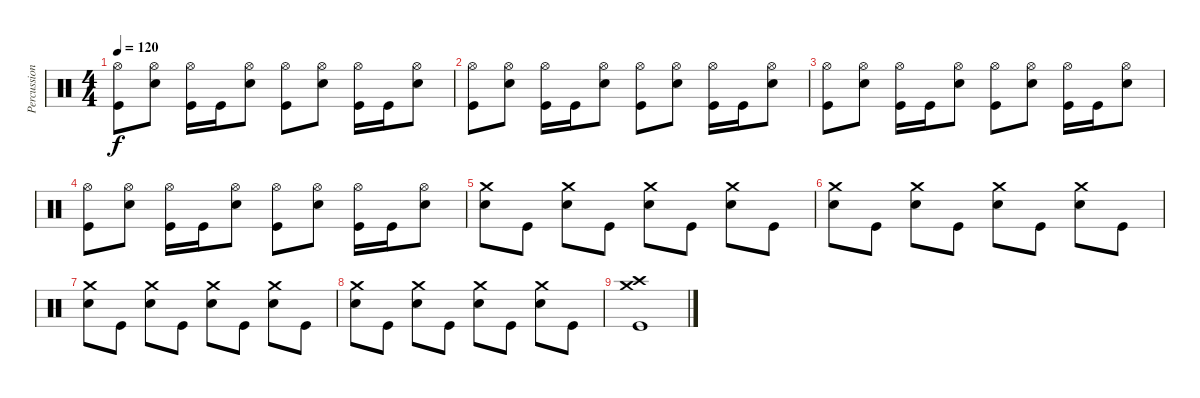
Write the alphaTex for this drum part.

\track ("Percussion" "Percussion") {instrument percussion}
\staff {score}
\articulation defaults
\ts (4 4)
\tempo 120
\clef neutral
\ks c
("Hi-Hat (open)" "Kick (hit)").8{dy f} ("Hi-Hat (open)" "Snare (hit) 2").8 ("Hi-Hat (open)" "Kick (hit)").16 "Kick (hit)".16 ("Hi-Hat (open)" "Snare (hit) 2").8 ("Hi-Hat (open)" "Kick (hit)").8 ("Hi-Hat (open)" "Snare (hit) 2").8 ("Hi-Hat (open)" "Kick (hit)").16 "Kick (hit)".16 ("Hi-Hat (open)" "Snare (hit) 2").8 |
("Hi-Hat (open)" "Kick (hit)").8 ("Hi-Hat (open)" "Snare (hit) 2").8 ("Hi-Hat (open)" "Kick (hit)").16 "Kick (hit)".16 ("Hi-Hat (open)" "Snare (hit) 2").8 ("Hi-Hat (open)" "Kick (hit)").8 ("Hi-Hat (open)" "Snare (hit) 2").8 ("Hi-Hat (open)" "Kick (hit)").16 "Kick (hit)".16 ("Hi-Hat (open)" "Snare (hit) 2").8 |
("Hi-Hat (open)" "Kick (hit)").8 ("Hi-Hat (open)" "Snare (hit) 2").8 ("Hi-Hat (open)" "Kick (hit)").16 "Kick (hit)".16 ("Hi-Hat (open)" "Snare (hit) 2").8 ("Hi-Hat (open)" "Kick (hit)").8 ("Hi-Hat (open)" "Snare (hit) 2").8 ("Hi-Hat (open)" "Kick (hit)").16 "Kick (hit)".16 ("Hi-Hat (open)" "Snare (hit) 2").8 |
("Hi-Hat (open)" "Kick (hit)").8 ("Hi-Hat (open)" "Snare (hit) 2").8 ("Hi-Hat (open)" "Kick (hit)").16 "Kick (hit)".16 ("Hi-Hat (open)" "Snare (hit) 2").8 ("Hi-Hat (open)" "Kick (hit)").8 ("Hi-Hat (open)" "Snare (hit) 2").8 ("Hi-Hat (open)" "Kick (hit)").16 "Kick (hit)".16 ("Hi-Hat (open)" "Snare (hit) 2").8 |
("Crash medium (hit)" "Snare (hit) 2").8 "Kick (hit)".8 ("Crash medium (hit)" "Snare (hit) 2").8 "Kick (hit)".8 ("Crash medium (hit)" "Snare (hit) 2").8 "Kick (hit)".8 ("Crash medium (hit)" "Snare (hit) 2").8 "Kick (hit)".8 |
("Crash medium (hit)" "Snare (hit) 2").8 "Kick (hit)".8 ("Crash medium (hit)" "Snare (hit) 2").8 "Kick (hit)".8 ("Crash medium (hit)" "Snare (hit) 2").8 "Kick (hit)".8 ("Crash medium (hit)" "Snare (hit) 2").8 "Kick (hit)".8 |
("Crash medium (hit)" "Snare (hit) 2").8 "Kick (hit)".8 ("Crash medium (hit)" "Snare (hit) 2").8 "Kick (hit)".8 ("Crash medium (hit)" "Snare (hit) 2").8 "Kick (hit)".8 ("Crash medium (hit)" "Snare (hit) 2").8 "Kick (hit)".8 |
("Crash medium (hit)" "Snare (hit) 2").8 "Kick (hit)".8 ("Crash medium (hit)" "Snare (hit) 2").8 "Kick (hit)".8 ("Crash medium (hit)" "Snare (hit) 2").8 "Kick (hit)".8 ("Crash medium (hit)" "Snare (hit) 2").8 "Kick (hit)".8 |
("Crash medium (hit)" "Crash high (hit)" "Kick (hit)").1
